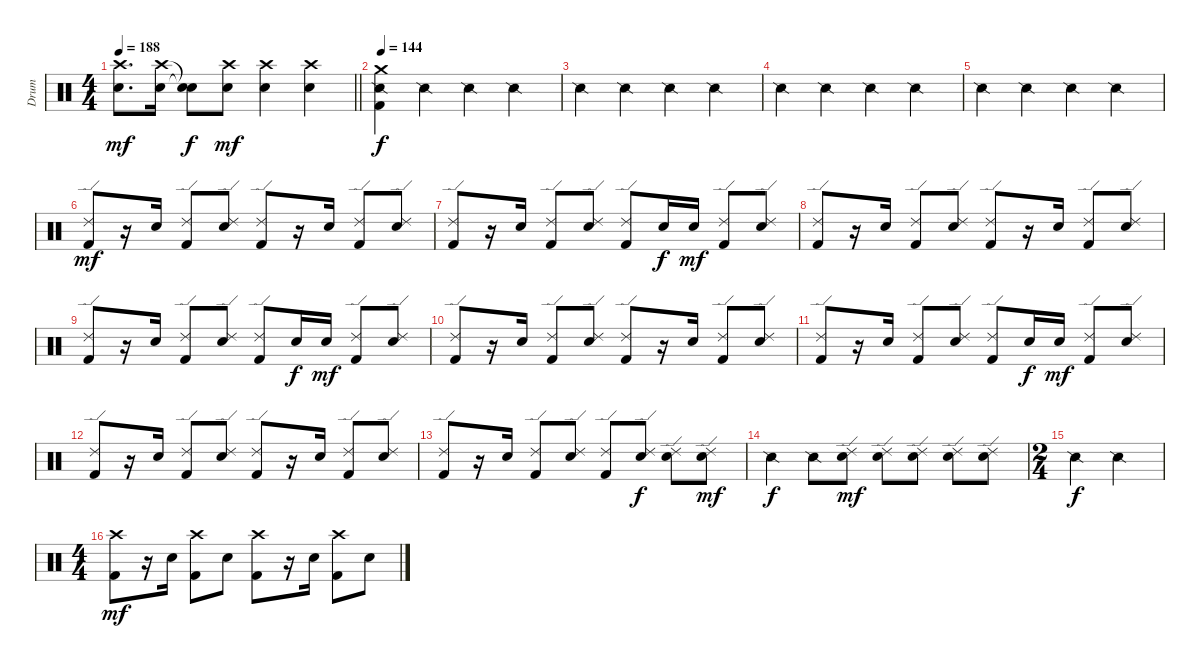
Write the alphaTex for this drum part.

\track ("Drum" "Drum") {instrument percussion}
\staff {score}
\articulation defaults
\ts (4 4)
\tempo 188
\clef neutral
\barLineRight lightlight
\ks c
("Crash high (hit)" "Snare (hit) 2").8{d dy mf} ("Crash high (hit)" "Snare (hit) 2").16 ("Snare (hit)"{t} "Snare (hit) 2"{t}).8{dy f} ("Crash high (hit)" "Snare (hit) 2").8{dy mf} ("Crash high (hit)" "Snare (hit) 2").4 ("Crash high (hit)" "Snare (hit) 2").4 |
\tempo 144
("Crash medium (hit)" "Kick (hit) 2" "Snare (side stick) 2").4{dy f} "Snare (side stick) 2".4 "Snare (side stick) 2".4 "Snare (side stick) 2".4 |
"Snare (side stick) 2".4 "Snare (side stick) 2".4 "Snare (side stick) 2".4 "Snare (side stick) 2".4 |
"Snare (side stick) 2".4 "Snare (side stick) 2".4 "Snare (side stick) 2".4 "Snare (side stick) 2".4 |
"Snare (side stick) 2".4 "Snare (side stick) 2".4 "Snare (side stick) 2".4 "Snare (side stick) 2".4 |
("Kick (hit) 2" "Ride (edge) 2").8{dy mf} r.16 "Snare (hit) 2".16 ("Kick (hit) 2" "Ride (edge) 2").8 ("Snare (hit) 2" "Ride (edge) 2").8 ("Kick (hit) 2" "Ride (edge) 2").8 r.16 "Snare (hit) 2".16 ("Kick (hit) 2" "Ride (edge) 2").8 ("Snare (hit) 2" "Ride (edge) 2").8 |
("Kick (hit) 2" "Ride (edge) 2").8 r.16 "Snare (hit) 2".16 ("Kick (hit) 2" "Ride (edge) 2").8 ("Snare (hit) 2" "Ride (edge) 2").8 ("Kick (hit) 2" "Ride (edge) 2").8 "Snare (hit) 2".16{dy f} "Snare (hit) 2".16{dy mf} ("Kick (hit) 2" "Ride (edge) 2").8 ("Snare (hit) 2" "Ride (edge) 2").8 |
("Kick (hit) 2" "Ride (edge) 2").8 r.16 "Snare (hit) 2".16 ("Kick (hit) 2" "Ride (edge) 2").8 ("Snare (hit) 2" "Ride (edge) 2").8 ("Kick (hit) 2" "Ride (edge) 2").8 r.16 "Snare (hit) 2".16 ("Kick (hit) 2" "Ride (edge) 2").8 ("Snare (hit) 2" "Ride (edge) 2").8 |
("Kick (hit) 2" "Ride (edge) 2").8 r.16 "Snare (hit) 2".16 ("Kick (hit) 2" "Ride (edge) 2").8 ("Snare (hit) 2" "Ride (edge) 2").8 ("Kick (hit) 2" "Ride (edge) 2").8 "Snare (hit) 2".16{dy f} "Snare (hit) 2".16{dy mf} ("Kick (hit) 2" "Ride (edge) 2").8 ("Snare (hit) 2" "Ride (edge) 2").8 |
("Kick (hit) 2" "Ride (edge) 2").8 r.16 "Snare (hit) 2".16 ("Kick (hit) 2" "Ride (edge) 2").8 ("Snare (hit) 2" "Ride (edge) 2").8 ("Kick (hit) 2" "Ride (edge) 2").8 r.16 "Snare (hit) 2".16 ("Kick (hit) 2" "Ride (edge) 2").8 ("Snare (hit) 2" "Ride (edge) 2").8 |
("Kick (hit) 2" "Ride (edge) 2").8 r.16 "Snare (hit) 2".16 ("Kick (hit) 2" "Ride (edge) 2").8 ("Snare (hit) 2" "Ride (edge) 2").8 ("Kick (hit) 2" "Ride (edge) 2").8 "Snare (hit) 2".16{dy f} "Snare (hit) 2".16{dy mf} ("Kick (hit) 2" "Ride (edge) 2").8 ("Snare (hit) 2" "Ride (edge) 2").8 |
("Kick (hit) 2" "Ride (edge) 2").8 r.16 "Snare (hit) 2".16 ("Kick (hit) 2" "Ride (edge) 2").8 ("Snare (hit) 2" "Ride (edge) 2").8 ("Kick (hit) 2" "Ride (edge) 2").8 r.16 "Snare (hit) 2".16 ("Kick (hit) 2" "Ride (edge) 2").8 ("Snare (hit) 2" "Ride (edge) 2").8 |
("Kick (hit) 2" "Ride (edge) 2").8 r.16 "Snare (hit) 2".16 ("Kick (hit) 2" "Ride (edge) 2").8 ("Snare (hit) 2" "Ride (edge) 2").8 ("Kick (hit) 2" "Ride (edge) 2").8 ("Snare (hit) 2" "Ride (edge) 2").8{dy f} ("Snare (hit) 2" "Ride (edge) 2").8 ("Snare (hit) 2" "Ride (edge) 2").8{dy mf} |
"Snare (side stick) 2".4{dy f} "Snare (side stick) 2".8 ("Ride (edge) 2" "Snare (hit) 2").8{dy mf} ("Ride (edge) 2" "Snare (hit) 2").8 ("Ride (edge) 2" "Snare (hit) 2").8 ("Ride (edge) 2" "Snare (hit) 2").8 ("Ride (edge) 2" "Snare (hit) 2").8 |
\ts (2 4)
"Snare (side stick) 2".4{dy f} "Snare (side stick) 2".4 |
\ts (4 4)
("Kick (hit) 2" "Crash high (hit)").8{dy mf} r.16 "Snare (hit) 2".16 ("Kick (hit) 2" "Crash high (hit)").8 "Snare (hit) 2".8 ("Kick (hit) 2" "Crash high (hit)").8 r.16 "Snare (hit) 2".16 ("Kick (hit) 2" "Crash high (hit)").8 "Snare (hit) 2".8
